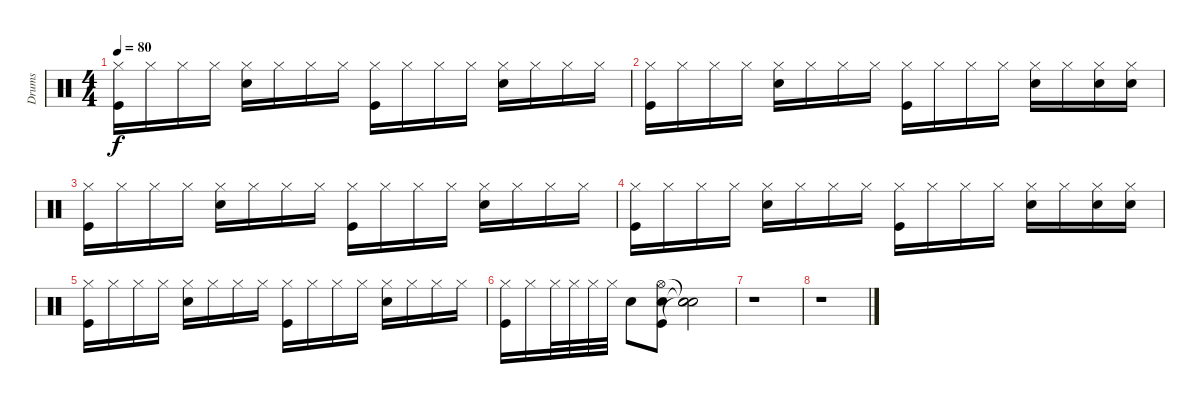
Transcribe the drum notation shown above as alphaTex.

\track ("Drums" "Drums") {instrument percussion}
\staff {score}
\articulation defaults
\ts (4 4)
\tempo 80
\clef neutral
\ks c
("Hi-Hat (closed)" "Kick (hit)").16{dy f} "Hi-Hat (closed)".16 "Hi-Hat (closed)".16 "Hi-Hat (closed)".16 ("Hi-Hat (closed)" "Snare (hit) 2").16 "Hi-Hat (closed)".16 "Hi-Hat (closed)".16 "Hi-Hat (closed)".16 ("Hi-Hat (closed)" "Kick (hit)").16 "Hi-Hat (closed)".16 "Hi-Hat (closed)".16 "Hi-Hat (closed)".16 ("Hi-Hat (closed)" "Snare (hit) 2").16 "Hi-Hat (closed)".16 "Hi-Hat (closed)".16 "Hi-Hat (closed)".16 |
("Hi-Hat (closed)" "Kick (hit)").16 "Hi-Hat (closed)".16 "Hi-Hat (closed)".16 "Hi-Hat (closed)".16 ("Hi-Hat (closed)" "Snare (hit) 2").16 "Hi-Hat (closed)".16 "Hi-Hat (closed)".16 "Hi-Hat (closed)".16 ("Hi-Hat (closed)" "Kick (hit)").16 "Hi-Hat (closed)".16 "Hi-Hat (closed)".16 "Hi-Hat (closed)".16 ("Hi-Hat (closed)" "Snare (hit) 2").16 "Hi-Hat (closed)".16 ("Hi-Hat (closed)" "Snare (hit) 2").16 ("Hi-Hat (closed)" "Snare (hit) 2").16 |
("Hi-Hat (closed)" "Kick (hit)").16 "Hi-Hat (closed)".16 "Hi-Hat (closed)".16 "Hi-Hat (closed)".16 ("Hi-Hat (closed)" "Snare (hit) 2").16 "Hi-Hat (closed)".16 "Hi-Hat (closed)".16 "Hi-Hat (closed)".16 ("Hi-Hat (closed)" "Kick (hit)").16 "Hi-Hat (closed)".16 "Hi-Hat (closed)".16 "Hi-Hat (closed)".16 ("Hi-Hat (closed)" "Snare (hit) 2").16 "Hi-Hat (closed)".16 "Hi-Hat (closed)".16 "Hi-Hat (closed)".16 |
("Hi-Hat (closed)" "Kick (hit)").16 "Hi-Hat (closed)".16 "Hi-Hat (closed)".16 "Hi-Hat (closed)".16 ("Hi-Hat (closed)" "Snare (hit) 2").16 "Hi-Hat (closed)".16 "Hi-Hat (closed)".16 "Hi-Hat (closed)".16 ("Hi-Hat (closed)" "Kick (hit)").16 "Hi-Hat (closed)".16 "Hi-Hat (closed)".16 "Hi-Hat (closed)".16 ("Hi-Hat (closed)" "Snare (hit) 2").16 "Hi-Hat (closed)".16 ("Hi-Hat (closed)" "Snare (hit) 2").16 ("Hi-Hat (closed)" "Snare (hit) 2").16 |
("Hi-Hat (closed)" "Kick (hit)").16 "Hi-Hat (closed)".16 "Hi-Hat (closed)".16 "Hi-Hat (closed)".16 ("Hi-Hat (closed)" "Snare (hit) 2").16 "Hi-Hat (closed)".16 "Hi-Hat (closed)".16 "Hi-Hat (closed)".16 ("Hi-Hat (closed)" "Kick (hit)").16 "Hi-Hat (closed)".16 "Hi-Hat (closed)".16 "Hi-Hat (closed)".16 ("Hi-Hat (closed)" "Snare (hit) 2").16 "Hi-Hat (closed)".16 "Hi-Hat (closed)".16 "Hi-Hat (closed)".16 |
("Hi-Hat (closed)" "Kick (hit)").16 "Hi-Hat (closed)".16 "Hi-Hat (closed)".32 "Hi-Hat (closed)".32 "Hi-Hat (closed)".32 "Hi-Hat (closed)".32 "Snare (hit) 2".8 ("Hi-Hat (open)" "Snare (hit) 2" "Kick (hit)").8 ("Snare (hit)"{t} "Snare (hit)"{t} "Snare (hit)"{t}).2 |
r.1 |
r.1
